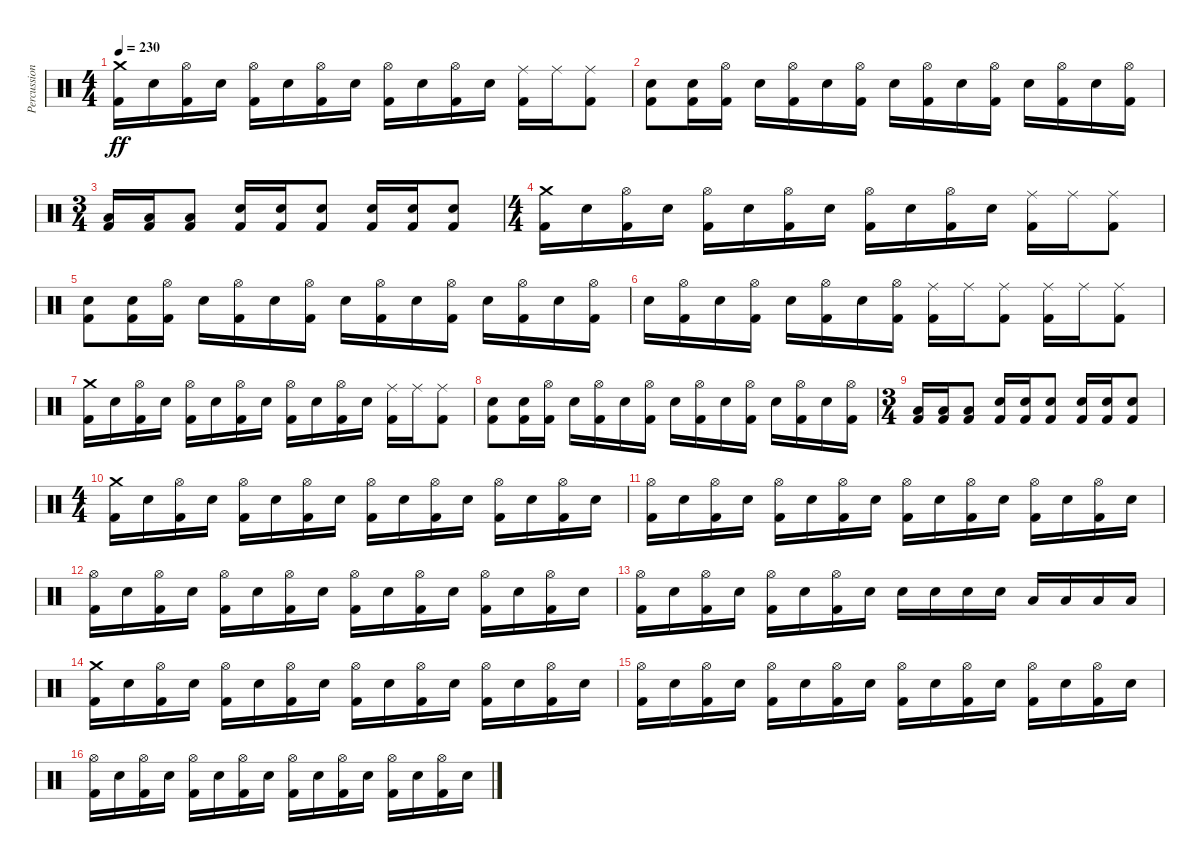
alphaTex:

\track ("Percussion" "Percussion") {instrument percussion}
\staff {score}
\articulation defaults
\ts (4 4)
\tempo 230
\clef neutral
\ks c
("Kick (hit) 2" "Crash medium (hit)").16{dy ff} "Electric Snare (hit)".16 ("Kick (hit) 2" "Hi-Hat (open)").16 "Electric Snare (hit)".16 ("Kick (hit) 2" "Hi-Hat (open)").16 "Electric Snare (hit)".16 ("Kick (hit) 2" "Hi-Hat (open)").16 "Electric Snare (hit)".16 ("Kick (hit) 2" "Hi-Hat (open)").16 "Electric Snare (hit)".16 ("Kick (hit) 2" "Hi-Hat (open)").16 "Electric Snare (hit)".16 ("Kick (hit) 2" "Ride (middle)").16 "Ride (middle)".16 ("Kick (hit) 2" "Ride (middle)").8 |
("Kick (hit) 2" "Electric Snare (hit)").8 ("Kick (hit) 2" "Electric Snare (hit)").16 ("Kick (hit) 2" "Hi-Hat (open)").16 "Electric Snare (hit)".16 ("Kick (hit) 2" "Hi-Hat (open)").16 "Electric Snare (hit)".16 ("Kick (hit) 2" "Hi-Hat (open)").16 "Electric Snare (hit)".16 ("Kick (hit) 2" "Hi-Hat (open)").16 "Electric Snare (hit)".16 ("Kick (hit) 2" "Hi-Hat (open)").16 "Electric Snare (hit)".16 ("Kick (hit) 2" "Hi-Hat (open)").16 "Electric Snare (hit)".16 ("Kick (hit) 2" "Hi-Hat (open)").16 |
\ts (3 4)
("Kick (hit) 2" "Low Tom (hit)").16 ("Kick (hit) 2" "Low Tom (hit)").16 ("Kick (hit) 2" "Low Tom (hit)").8 ("Kick (hit) 2" "Electric Snare (hit)").16 ("Kick (hit) 2" "Electric Snare (hit)").16 ("Kick (hit) 2" "Electric Snare (hit)").8 ("Kick (hit) 2" "Electric Snare (hit)").16 ("Kick (hit) 2" "Electric Snare (hit)").16 ("Kick (hit) 2" "Electric Snare (hit)").8 |
\ts (4 4)
("Kick (hit) 2" "Crash medium (hit)").16 "Electric Snare (hit)".16 ("Kick (hit) 2" "Hi-Hat (open)").16 "Electric Snare (hit)".16 ("Kick (hit) 2" "Hi-Hat (open)").16 "Electric Snare (hit)".16 ("Kick (hit) 2" "Hi-Hat (open)").16 "Electric Snare (hit)".16 ("Kick (hit) 2" "Hi-Hat (open)").16 "Electric Snare (hit)".16 ("Kick (hit) 2" "Hi-Hat (open)").16 "Electric Snare (hit)".16 ("Kick (hit) 2" "Ride (middle)").16 "Ride (middle)".16 ("Kick (hit) 2" "Ride (middle)").8 |
("Kick (hit) 2" "Electric Snare (hit)").8 ("Kick (hit) 2" "Electric Snare (hit)").16 ("Kick (hit) 2" "Hi-Hat (open)").16 "Electric Snare (hit)".16 ("Kick (hit) 2" "Hi-Hat (open)").16 "Electric Snare (hit)".16 ("Kick (hit) 2" "Hi-Hat (open)").16 "Electric Snare (hit)".16 ("Kick (hit) 2" "Hi-Hat (open)").16 "Electric Snare (hit)".16 ("Kick (hit) 2" "Hi-Hat (open)").16 "Electric Snare (hit)".16 ("Kick (hit) 2" "Hi-Hat (open)").16 "Electric Snare (hit)".16 ("Kick (hit) 2" "Hi-Hat (open)").16 |
"Electric Snare (hit)".16 ("Kick (hit) 2" "Hi-Hat (open)").16 "Electric Snare (hit)".16 ("Kick (hit) 2" "Hi-Hat (open)").16 "Electric Snare (hit)".16 ("Kick (hit) 2" "Hi-Hat (open)").16 "Electric Snare (hit)".16 ("Kick (hit) 2" "Hi-Hat (open)").16 ("Kick (hit) 2" "Ride (middle)").16 "Ride (middle)".16 ("Kick (hit) 2" "Ride (middle)").8 ("Kick (hit) 2" "Ride (middle)").16 "Ride (middle)".16 ("Kick (hit) 2" "Ride (middle)").8 |
("Kick (hit) 2" "Crash medium (hit)").16 "Electric Snare (hit)".16 ("Kick (hit) 2" "Hi-Hat (open)").16 "Electric Snare (hit)".16 ("Kick (hit) 2" "Hi-Hat (open)").16 "Electric Snare (hit)".16 ("Kick (hit) 2" "Hi-Hat (open)").16 "Electric Snare (hit)".16 ("Kick (hit) 2" "Hi-Hat (open)").16 "Electric Snare (hit)".16 ("Kick (hit) 2" "Hi-Hat (open)").16 "Electric Snare (hit)".16 ("Kick (hit) 2" "Ride (middle)").16 "Ride (middle)".16 ("Kick (hit) 2" "Ride (middle)").8 |
("Kick (hit) 2" "Electric Snare (hit)").8 ("Kick (hit) 2" "Electric Snare (hit)").16 ("Kick (hit) 2" "Hi-Hat (open)").16 "Electric Snare (hit)".16 ("Kick (hit) 2" "Hi-Hat (open)").16 "Electric Snare (hit)".16 ("Kick (hit) 2" "Hi-Hat (open)").16 "Electric Snare (hit)".16 ("Kick (hit) 2" "Hi-Hat (open)").16 "Electric Snare (hit)".16 ("Kick (hit) 2" "Hi-Hat (open)").16 "Electric Snare (hit)".16 ("Kick (hit) 2" "Hi-Hat (open)").16 "Electric Snare (hit)".16 ("Kick (hit) 2" "Hi-Hat (open)").16 |
\ts (3 4)
("Kick (hit) 2" "Low Tom (hit)").16 ("Kick (hit) 2" "Low Tom (hit)").16 ("Kick (hit) 2" "Low Tom (hit)").8 ("Kick (hit) 2" "Electric Snare (hit)").16 ("Kick (hit) 2" "Electric Snare (hit)").16 ("Kick (hit) 2" "Electric Snare (hit)").8 ("Kick (hit) 2" "Electric Snare (hit)").16 ("Kick (hit) 2" "Electric Snare (hit)").16 ("Kick (hit) 2" "Electric Snare (hit)").8 |
\ts (4 4)
("Kick (hit) 2" "Crash medium (hit)").16 "Electric Snare (hit)".16 ("Kick (hit) 2" "Hi-Hat (open)").16 "Electric Snare (hit)".16 ("Kick (hit) 2" "Hi-Hat (open)").16 "Electric Snare (hit)".16 ("Kick (hit) 2" "Hi-Hat (open)").16 "Electric Snare (hit)".16 ("Kick (hit) 2" "Hi-Hat (open)").16 "Electric Snare (hit)".16 ("Kick (hit) 2" "Hi-Hat (open)").16 "Electric Snare (hit)".16 ("Kick (hit) 2" "Hi-Hat (open)").16 "Electric Snare (hit)".16 ("Kick (hit) 2" "Hi-Hat (open)").16 "Electric Snare (hit)".16 |
("Kick (hit) 2" "Hi-Hat (open)").16 "Electric Snare (hit)".16 ("Kick (hit) 2" "Hi-Hat (open)").16 "Electric Snare (hit)".16 ("Kick (hit) 2" "Hi-Hat (open)").16 "Electric Snare (hit)".16 ("Kick (hit) 2" "Hi-Hat (open)").16 "Electric Snare (hit)".16 ("Kick (hit) 2" "Hi-Hat (open)").16 "Electric Snare (hit)".16 ("Kick (hit) 2" "Hi-Hat (open)").16 "Electric Snare (hit)".16 ("Kick (hit) 2" "Hi-Hat (open)").16 "Electric Snare (hit)".16 ("Kick (hit) 2" "Hi-Hat (open)").16 "Electric Snare (hit)".16 |
("Kick (hit) 2" "Hi-Hat (open)").16 "Electric Snare (hit)".16 ("Kick (hit) 2" "Hi-Hat (open)").16 "Electric Snare (hit)".16 ("Kick (hit) 2" "Hi-Hat (open)").16 "Electric Snare (hit)".16 ("Kick (hit) 2" "Hi-Hat (open)").16 "Electric Snare (hit)".16 ("Kick (hit) 2" "Hi-Hat (open)").16 "Electric Snare (hit)".16 ("Kick (hit) 2" "Hi-Hat (open)").16 "Electric Snare (hit)".16 ("Kick (hit) 2" "Hi-Hat (open)").16 "Electric Snare (hit)".16 ("Kick (hit) 2" "Hi-Hat (open)").16 "Electric Snare (hit)".16 |
("Kick (hit) 2" "Hi-Hat (open)").16 "Electric Snare (hit)".16 ("Kick (hit) 2" "Hi-Hat (open)").16 "Electric Snare (hit)".16 ("Kick (hit) 2" "Hi-Hat (open)").16 "Electric Snare (hit)".16 ("Kick (hit) 2" "Hi-Hat (open)").16 "Electric Snare (hit)".16 "Electric Snare (hit)".16 "Electric Snare (hit)".16 "Electric Snare (hit)".16 "Electric Snare (hit)".16 "Low Tom (hit)".16 "Low Tom (hit)".16 "Low Tom (hit)".16 "Low Tom (hit)".16 |
("Kick (hit) 2" "Crash medium (hit)").16 "Electric Snare (hit)".16 ("Kick (hit) 2" "Hi-Hat (open)").16 "Electric Snare (hit)".16 ("Kick (hit) 2" "Hi-Hat (open)").16 "Electric Snare (hit)".16 ("Kick (hit) 2" "Hi-Hat (open)").16 "Electric Snare (hit)".16 ("Kick (hit) 2" "Hi-Hat (open)").16 "Electric Snare (hit)".16 ("Kick (hit) 2" "Hi-Hat (open)").16 "Electric Snare (hit)".16 ("Kick (hit) 2" "Hi-Hat (open)").16 "Electric Snare (hit)".16 ("Kick (hit) 2" "Hi-Hat (open)").16 "Electric Snare (hit)".16 |
("Kick (hit) 2" "Hi-Hat (open)").16 "Electric Snare (hit)".16 ("Kick (hit) 2" "Hi-Hat (open)").16 "Electric Snare (hit)".16 ("Kick (hit) 2" "Hi-Hat (open)").16 "Electric Snare (hit)".16 ("Kick (hit) 2" "Hi-Hat (open)").16 "Electric Snare (hit)".16 ("Kick (hit) 2" "Hi-Hat (open)").16 "Electric Snare (hit)".16 ("Kick (hit) 2" "Hi-Hat (open)").16 "Electric Snare (hit)".16 ("Kick (hit) 2" "Hi-Hat (open)").16 "Electric Snare (hit)".16 ("Kick (hit) 2" "Hi-Hat (open)").16 "Electric Snare (hit)".16 |
("Kick (hit) 2" "Hi-Hat (open)").16 "Electric Snare (hit)".16 ("Kick (hit) 2" "Hi-Hat (open)").16 "Electric Snare (hit)".16 ("Kick (hit) 2" "Hi-Hat (open)").16 "Electric Snare (hit)".16 ("Kick (hit) 2" "Hi-Hat (open)").16 "Electric Snare (hit)".16 ("Kick (hit) 2" "Hi-Hat (open)").16 "Electric Snare (hit)".16 ("Kick (hit) 2" "Hi-Hat (open)").16 "Electric Snare (hit)".16 ("Kick (hit) 2" "Hi-Hat (open)").16 "Electric Snare (hit)".16 ("Kick (hit) 2" "Hi-Hat (open)").16 "Electric Snare (hit)".16
